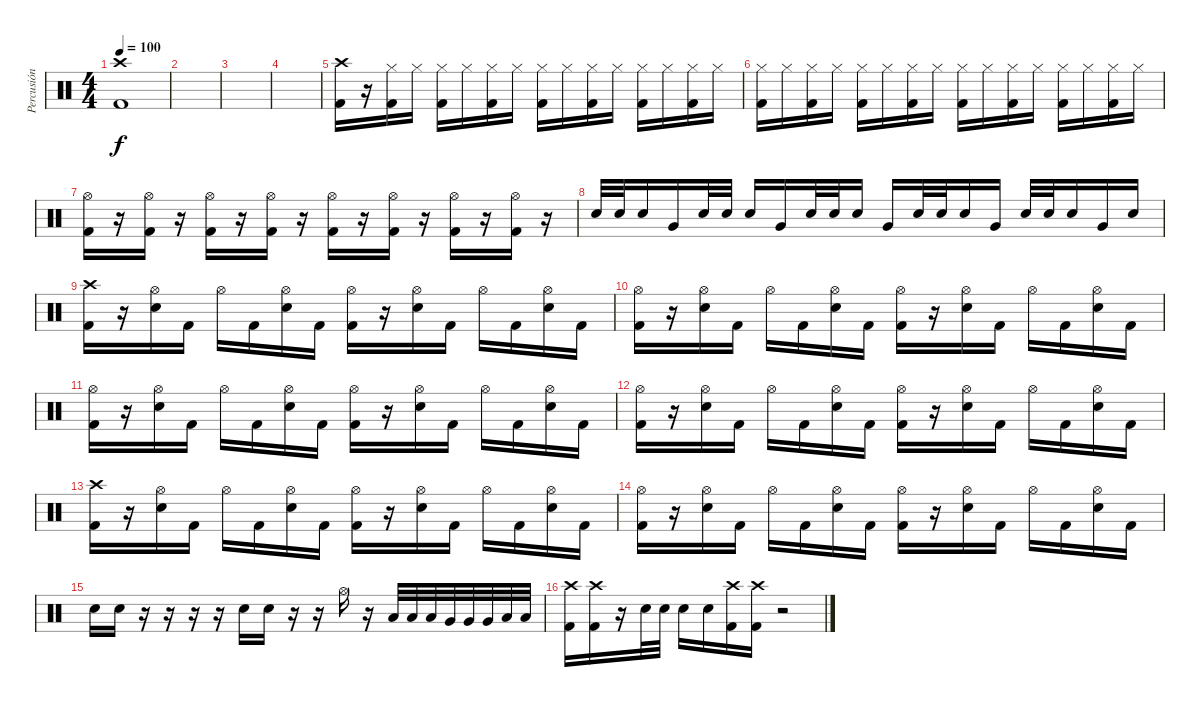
\track ("Percusión" "Percusión") {instrument percussion}
\staff {score}
\articulation defaults
\ts (4 4)
\tempo 100
\clef neutral
\ks c
("Crash high (hit)" "Kick (hit) 2").1{dy f} |
|
|
|
("Crash high (hit)" "Kick (hit) 2").16 r.16 ("Hi-Hat (closed)" "Kick (hit) 2").16 "Hi-Hat (closed)".16 ("Hi-Hat (closed)" "Kick (hit) 2").16 "Hi-Hat (closed)".16 ("Hi-Hat (closed)" "Kick (hit) 2").16 "Hi-Hat (closed)".16 ("Hi-Hat (closed)" "Kick (hit) 2").16 "Hi-Hat (closed)".16 ("Hi-Hat (closed)" "Kick (hit) 2").16 "Hi-Hat (closed)".16 ("Hi-Hat (closed)" "Kick (hit) 2").16 "Hi-Hat (closed)".16 ("Hi-Hat (closed)" "Kick (hit) 2").16 "Hi-Hat (closed)".16 |
("Hi-Hat (closed)" "Kick (hit) 2").16 "Hi-Hat (closed)".16 ("Hi-Hat (closed)" "Kick (hit) 2").16 "Hi-Hat (closed)".16 ("Hi-Hat (closed)" "Kick (hit) 2").16 "Hi-Hat (closed)".16 ("Hi-Hat (closed)" "Kick (hit) 2").16 "Hi-Hat (closed)".16 ("Hi-Hat (closed)" "Kick (hit) 2").16 "Hi-Hat (closed)".16 ("Hi-Hat (closed)" "Kick (hit) 2").16 "Hi-Hat (closed)".16 ("Hi-Hat (closed)" "Kick (hit) 2").16 "Hi-Hat (closed)".16 ("Hi-Hat (closed)" "Kick (hit) 2").16 "Hi-Hat (closed)".16 |
("Hi-Hat (open)" "Kick (hit) 2").16 r.16 ("Hi-Hat (open)" "Kick (hit) 2").16 r.16 ("Hi-Hat (open)" "Kick (hit) 2").16 r.16 ("Hi-Hat (open)" "Kick (hit) 2").16 r.16 ("Hi-Hat (open)" "Kick (hit) 2").16 r.16 ("Hi-Hat (open)" "Kick (hit) 2").16 r.16 ("Hi-Hat (open)" "Kick (hit) 2").16 r.16 ("Hi-Hat (open)" "Kick (hit) 2").16 r.16 |
"Electric Snare (hit)".32 "Electric Snare (hit)".32 "Electric Snare (hit)".16 "Very Low Tom (hit)".16 "Electric Snare (hit)".32 "Electric Snare (hit)".32 "Electric Snare (hit)".16 "Very Low Tom (hit)".16 "Electric Snare (hit)".32 "Electric Snare (hit)".32 "Electric Snare (hit)".16 "Very Low Tom (hit)".16 "Electric Snare (hit)".32 "Electric Snare (hit)".32 "Electric Snare (hit)".16 "Very Low Tom (hit)".16 "Electric Snare (hit)".32 "Electric Snare (hit)".32 "Electric Snare (hit)".16 "Very Low Tom (hit)".16 "Electric Snare (hit)".16 |
("Crash high (hit)" "Kick (hit) 2").16 r.16 ("Hi-Hat (open)" "Electric Snare (hit)").16 "Kick (hit) 2".16 "Hi-Hat (open)".16 "Kick (hit) 2".16 ("Hi-Hat (open)" "Electric Snare (hit)").16 "Kick (hit) 2".16 ("Hi-Hat (open)" "Kick (hit) 2").16 r.16 ("Hi-Hat (open)" "Electric Snare (hit)").16 "Kick (hit) 2".16 "Hi-Hat (open)".16 "Kick (hit) 2".16 ("Hi-Hat (open)" "Electric Snare (hit)").16 "Kick (hit) 2".16 |
("Hi-Hat (open)" "Kick (hit) 2").16 r.16 ("Hi-Hat (open)" "Electric Snare (hit)").16 "Kick (hit) 2".16 "Hi-Hat (open)".16 "Kick (hit) 2".16 ("Hi-Hat (open)" "Electric Snare (hit)").16 "Kick (hit) 2".16 ("Hi-Hat (open)" "Kick (hit) 2").16 r.16 ("Hi-Hat (open)" "Electric Snare (hit)").16 "Kick (hit) 2".16 "Hi-Hat (open)".16 "Kick (hit) 2".16 ("Hi-Hat (open)" "Electric Snare (hit)").16 "Kick (hit) 2".16 |
("Hi-Hat (open)" "Kick (hit) 2").16 r.16 ("Hi-Hat (open)" "Electric Snare (hit)").16 "Kick (hit) 2".16 "Hi-Hat (open)".16 "Kick (hit) 2".16 ("Hi-Hat (open)" "Electric Snare (hit)").16 "Kick (hit) 2".16 ("Hi-Hat (open)" "Kick (hit) 2").16 r.16 ("Hi-Hat (open)" "Electric Snare (hit)").16 "Kick (hit) 2".16 "Hi-Hat (open)".16 "Kick (hit) 2".16 ("Hi-Hat (open)" "Electric Snare (hit)").16 "Kick (hit) 2".16 |
("Hi-Hat (open)" "Kick (hit) 2").16 r.16 ("Hi-Hat (open)" "Electric Snare (hit)").16 "Kick (hit) 2".16 "Hi-Hat (open)".16 "Kick (hit) 2".16 ("Hi-Hat (open)" "Electric Snare (hit)").16 "Kick (hit) 2".16 ("Hi-Hat (open)" "Kick (hit) 2").16 r.16 ("Hi-Hat (open)" "Electric Snare (hit)").16 "Kick (hit) 2".16 "Hi-Hat (open)".16 "Kick (hit) 2".16 ("Hi-Hat (open)" "Electric Snare (hit)").16 "Kick (hit) 2".16 |
("Crash high (hit)" "Kick (hit) 2").16 r.16 ("Hi-Hat (open)" "Electric Snare (hit)").16 "Kick (hit) 2".16 "Hi-Hat (open)".16 "Kick (hit) 2".16 ("Hi-Hat (open)" "Electric Snare (hit)").16 "Kick (hit) 2".16 ("Hi-Hat (open)" "Kick (hit) 2").16 r.16 ("Hi-Hat (open)" "Electric Snare (hit)").16 "Kick (hit) 2".16 "Hi-Hat (open)".16 "Kick (hit) 2".16 ("Hi-Hat (open)" "Electric Snare (hit)").16 "Kick (hit) 2".16 |
("Hi-Hat (open)" "Kick (hit) 2").16 r.16 ("Hi-Hat (open)" "Electric Snare (hit)").16 "Kick (hit) 2".16 "Hi-Hat (open)".16 "Kick (hit) 2".16 ("Hi-Hat (open)" "Electric Snare (hit)").16 "Kick (hit) 2".16 ("Hi-Hat (open)" "Kick (hit) 2").16 r.16 ("Hi-Hat (open)" "Electric Snare (hit)").16 "Kick (hit) 2".16 "Hi-Hat (open)".16 "Kick (hit) 2".16 ("Hi-Hat (open)" "Electric Snare (hit)").16 "Kick (hit) 2".16 |
"Electric Snare (hit)".16 "Electric Snare (hit)".16 r.16 r.16 r.16 r.16 "Electric Snare (hit)".16 "Electric Snare (hit)".16 r.16 r.16 "Hi-Hat (open)".16 r.16 "Low Tom (hit)".32 "Low Tom (hit)".32 "Low Tom (hit)".32 "Very Low Tom (hit)".32 "Very Low Tom (hit)".32 "Very Low Tom (hit)".32 "Low Floor Tom (hit)".32 "Low Floor Tom (hit)".32 |
("Kick (hit) 2" "Crash high (hit)").16 ("Kick (hit) 2" "Crash high (hit)").16 r.16 "Electric Snare (hit)".32 "Electric Snare (hit)".32 "Electric Snare (hit)".16 "Electric Snare (hit)".16 ("Kick (hit) 2" "Crash high (hit)").16 ("Kick (hit) 2" "Crash high (hit)").16 r.2
